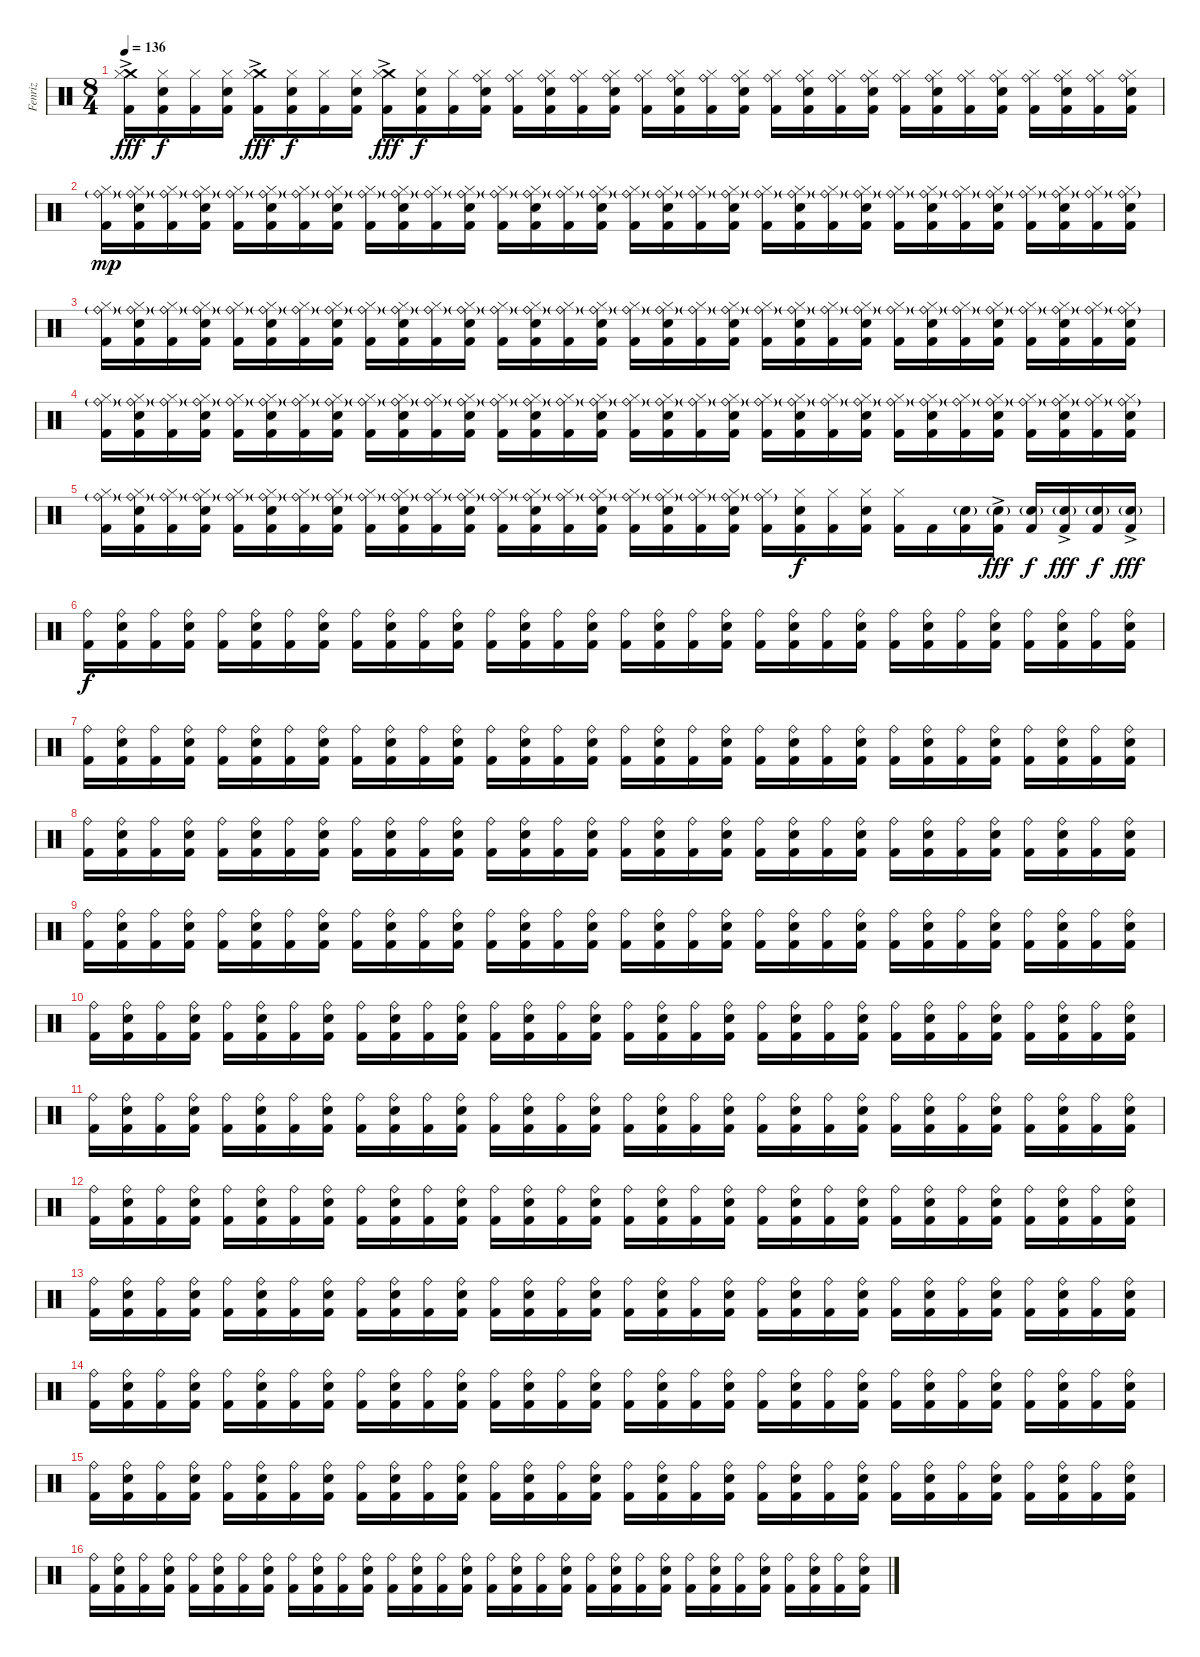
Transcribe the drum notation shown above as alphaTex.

\track ("Fenriz" "Fenriz") {instrument percussion}
\staff {score}
\articulation defaults
\ts (8 4)
\tempo 136
\clef neutral
\ks c
("Crash medium (hit)"{ac} "Hi-Hat (closed)" "Kick (hit) 2").16{dy fff} ("Snare (hit) 2" "Hi-Hat (closed)" "Kick (hit) 2").16{dy f} ("Hi-Hat (closed)" "Kick (hit) 2").16 ("Snare (hit) 2" "Hi-Hat (closed)" "Kick (hit) 2").16 ("Crash medium (hit)"{ac} "Hi-Hat (closed)" "Kick (hit) 2").16{dy fff} ("Snare (hit) 2" "Hi-Hat (closed)" "Kick (hit) 2").16{dy f} ("Hi-Hat (closed)" "Kick (hit) 2").16 ("Snare (hit) 2" "Hi-Hat (closed)" "Kick (hit) 2").16 ("Crash medium (hit)"{ac} "Hi-Hat (closed)" "Kick (hit) 2").16{dy fff} ("Snare (hit) 2" "Hi-Hat (closed)" "Kick (hit) 2").16{dy f} ("Hi-Hat (closed)" "Kick (hit) 2").16 ("Ride (bell)" "Snare (hit) 2" "Hi-Hat (closed)" "Kick (hit) 2").16 ("Ride (bell)" "Hi-Hat (closed)" "Kick (hit) 2").16 ("Ride (bell)" "Snare (hit) 2" "Hi-Hat (closed)" "Kick (hit) 2").16 ("Ride (bell)" "Hi-Hat (closed)" "Kick (hit) 2").16 ("Ride (bell)" "Snare (hit) 2" "Hi-Hat (closed)" "Kick (hit) 2").16 ("Ride (bell)" "Hi-Hat (closed)" "Kick (hit) 2").16 ("Ride (bell)" "Snare (hit) 2" "Hi-Hat (closed)" "Kick (hit) 2").16 ("Ride (bell)" "Hi-Hat (closed)" "Kick (hit) 2").16 ("Ride (bell)" "Snare (hit) 2" "Hi-Hat (closed)" "Kick (hit) 2").16 ("Ride (bell)" "Hi-Hat (closed)" "Kick (hit) 2").16 ("Ride (bell)" "Snare (hit) 2" "Hi-Hat (closed)" "Kick (hit) 2").16 ("Ride (bell)" "Hi-Hat (closed)" "Kick (hit) 2").16 ("Ride (bell)" "Snare (hit) 2" "Hi-Hat (closed)" "Kick (hit) 2").16 ("Ride (bell)" "Hi-Hat (closed)" "Kick (hit) 2").16 ("Ride (bell)" "Snare (hit) 2" "Hi-Hat (closed)" "Kick (hit) 2").16 ("Ride (bell)" "Hi-Hat (closed)" "Kick (hit) 2").16 ("Ride (bell)" "Snare (hit) 2" "Hi-Hat (closed)" "Kick (hit) 2").16 ("Ride (bell)" "Hi-Hat (closed)" "Kick (hit) 2").16 ("Ride (bell)" "Snare (hit) 2" "Hi-Hat (closed)" "Kick (hit) 2").16 ("Ride (bell)" "Hi-Hat (closed)" "Kick (hit) 2").16 ("Ride (bell)" "Snare (hit) 2" "Hi-Hat (closed)" "Kick (hit) 2").16 |
("Ride (bell)"{g} "Hi-Hat (closed)" "Kick (hit) 2").16{dy mp} ("Ride (bell)"{g} "Snare (hit) 2" "Hi-Hat (closed)" "Kick (hit) 2").16 ("Ride (bell)"{g} "Hi-Hat (closed)" "Kick (hit) 2").16 ("Ride (bell)"{g} "Snare (hit) 2" "Hi-Hat (closed)" "Kick (hit) 2").16 ("Ride (bell)"{g} "Hi-Hat (closed)" "Kick (hit) 2").16 ("Ride (bell)"{g} "Snare (hit) 2" "Hi-Hat (closed)" "Kick (hit) 2").16 ("Ride (bell)"{g} "Hi-Hat (closed)" "Kick (hit) 2").16 ("Ride (bell)"{g} "Snare (hit) 2" "Hi-Hat (closed)" "Kick (hit) 2").16 ("Ride (bell)"{g} "Hi-Hat (closed)" "Kick (hit) 2").16 ("Ride (bell)"{g} "Snare (hit) 2" "Hi-Hat (closed)" "Kick (hit) 2").16 ("Ride (bell)"{g} "Hi-Hat (closed)" "Kick (hit) 2").16 ("Ride (bell)"{g} "Snare (hit) 2" "Hi-Hat (closed)" "Kick (hit) 2").16 ("Ride (bell)"{g} "Hi-Hat (closed)" "Kick (hit) 2").16 ("Ride (bell)"{g} "Snare (hit) 2" "Hi-Hat (closed)" "Kick (hit) 2").16 ("Ride (bell)"{g} "Hi-Hat (closed)" "Kick (hit) 2").16 ("Ride (bell)"{g} "Snare (hit) 2" "Hi-Hat (closed)" "Kick (hit) 2").16 ("Ride (bell)"{g} "Hi-Hat (closed)" "Kick (hit) 2").16 ("Ride (bell)"{g} "Snare (hit) 2" "Hi-Hat (closed)" "Kick (hit) 2").16 ("Ride (bell)"{g} "Hi-Hat (closed)" "Kick (hit) 2").16 ("Ride (bell)"{g} "Snare (hit) 2" "Hi-Hat (closed)" "Kick (hit) 2").16 ("Ride (bell)"{g} "Hi-Hat (closed)" "Kick (hit) 2").16 ("Ride (bell)"{g} "Snare (hit) 2" "Hi-Hat (closed)" "Kick (hit) 2").16 ("Ride (bell)"{g} "Hi-Hat (closed)" "Kick (hit) 2").16 ("Ride (bell)"{g} "Snare (hit) 2" "Hi-Hat (closed)" "Kick (hit) 2").16 ("Ride (bell)"{g} "Hi-Hat (closed)" "Kick (hit) 2").16 ("Ride (bell)"{g} "Snare (hit) 2" "Hi-Hat (closed)" "Kick (hit) 2").16 ("Ride (bell)"{g} "Hi-Hat (closed)" "Kick (hit) 2").16 ("Ride (bell)"{g} "Snare (hit) 2" "Hi-Hat (closed)" "Kick (hit) 2").16 ("Ride (bell)"{g} "Hi-Hat (closed)" "Kick (hit) 2").16 ("Ride (bell)"{g} "Snare (hit) 2" "Hi-Hat (closed)" "Kick (hit) 2").16 ("Ride (bell)"{g} "Hi-Hat (closed)" "Kick (hit) 2").16 ("Ride (bell)"{g} "Snare (hit) 2" "Hi-Hat (closed)" "Kick (hit) 2").16 |
("Ride (bell)"{g} "Hi-Hat (closed)" "Kick (hit) 2").16 ("Ride (bell)"{g} "Snare (hit) 2" "Hi-Hat (closed)" "Kick (hit) 2").16 ("Ride (bell)"{g} "Hi-Hat (closed)" "Kick (hit) 2").16 ("Ride (bell)"{g} "Snare (hit) 2" "Hi-Hat (closed)" "Kick (hit) 2").16 ("Ride (bell)"{g} "Hi-Hat (closed)" "Kick (hit) 2").16 ("Ride (bell)"{g} "Snare (hit) 2" "Hi-Hat (closed)" "Kick (hit) 2").16 ("Ride (bell)"{g} "Hi-Hat (closed)" "Kick (hit) 2").16 ("Ride (bell)"{g} "Snare (hit) 2" "Hi-Hat (closed)" "Kick (hit) 2").16 ("Ride (bell)"{g} "Hi-Hat (closed)" "Kick (hit) 2").16 ("Ride (bell)"{g} "Snare (hit) 2" "Hi-Hat (closed)" "Kick (hit) 2").16 ("Ride (bell)"{g} "Hi-Hat (closed)" "Kick (hit) 2").16 ("Ride (bell)"{g} "Snare (hit) 2" "Hi-Hat (closed)" "Kick (hit) 2").16 ("Ride (bell)"{g} "Hi-Hat (closed)" "Kick (hit) 2").16 ("Ride (bell)"{g} "Snare (hit) 2" "Hi-Hat (closed)" "Kick (hit) 2").16 ("Ride (bell)"{g} "Hi-Hat (closed)" "Kick (hit) 2").16 ("Ride (bell)"{g} "Snare (hit) 2" "Hi-Hat (closed)" "Kick (hit) 2").16 ("Ride (bell)"{g} "Hi-Hat (closed)" "Kick (hit) 2").16 ("Ride (bell)"{g} "Snare (hit) 2" "Hi-Hat (closed)" "Kick (hit) 2").16 ("Ride (bell)"{g} "Hi-Hat (closed)" "Kick (hit) 2").16 ("Ride (bell)"{g} "Snare (hit) 2" "Hi-Hat (closed)" "Kick (hit) 2").16 ("Ride (bell)"{g} "Hi-Hat (closed)" "Kick (hit) 2").16 ("Ride (bell)"{g} "Snare (hit) 2" "Hi-Hat (closed)" "Kick (hit) 2").16 ("Ride (bell)"{g} "Hi-Hat (closed)" "Kick (hit) 2").16 ("Ride (bell)"{g} "Snare (hit) 2" "Hi-Hat (closed)" "Kick (hit) 2").16 ("Ride (bell)"{g} "Hi-Hat (closed)" "Kick (hit) 2").16 ("Ride (bell)"{g} "Snare (hit) 2" "Hi-Hat (closed)" "Kick (hit) 2").16 ("Ride (bell)"{g} "Hi-Hat (closed)" "Kick (hit) 2").16 ("Ride (bell)"{g} "Snare (hit) 2" "Hi-Hat (closed)" "Kick (hit) 2").16 ("Ride (bell)"{g} "Hi-Hat (closed)" "Kick (hit) 2").16 ("Ride (bell)"{g} "Snare (hit) 2" "Hi-Hat (closed)" "Kick (hit) 2").16 ("Ride (bell)"{g} "Hi-Hat (closed)" "Kick (hit) 2").16 ("Ride (bell)"{g} "Snare (hit) 2" "Hi-Hat (closed)" "Kick (hit) 2").16 |
("Ride (bell)"{g} "Hi-Hat (closed)" "Kick (hit) 2").16 ("Ride (bell)"{g} "Snare (hit) 2" "Hi-Hat (closed)" "Kick (hit) 2").16 ("Ride (bell)"{g} "Hi-Hat (closed)" "Kick (hit) 2").16 ("Ride (bell)"{g} "Snare (hit) 2" "Hi-Hat (closed)" "Kick (hit) 2").16 ("Ride (bell)"{g} "Hi-Hat (closed)" "Kick (hit) 2").16 ("Ride (bell)"{g} "Snare (hit) 2" "Hi-Hat (closed)" "Kick (hit) 2").16 ("Ride (bell)"{g} "Hi-Hat (closed)" "Kick (hit) 2").16 ("Ride (bell)"{g} "Snare (hit) 2" "Hi-Hat (closed)" "Kick (hit) 2").16 ("Ride (bell)"{g} "Hi-Hat (closed)" "Kick (hit) 2").16 ("Ride (bell)"{g} "Snare (hit) 2" "Hi-Hat (closed)" "Kick (hit) 2").16 ("Ride (bell)"{g} "Hi-Hat (closed)" "Kick (hit) 2").16 ("Ride (bell)"{g} "Snare (hit) 2" "Hi-Hat (closed)" "Kick (hit) 2").16 ("Ride (bell)"{g} "Hi-Hat (closed)" "Kick (hit) 2").16 ("Ride (bell)"{g} "Snare (hit) 2" "Hi-Hat (closed)" "Kick (hit) 2").16 ("Ride (bell)"{g} "Hi-Hat (closed)" "Kick (hit) 2").16 ("Ride (bell)"{g} "Snare (hit) 2" "Hi-Hat (closed)" "Kick (hit) 2").16 ("Ride (bell)"{g} "Hi-Hat (closed)" "Kick (hit) 2").16 ("Ride (bell)"{g} "Snare (hit) 2" "Hi-Hat (closed)" "Kick (hit) 2").16 ("Ride (bell)"{g} "Hi-Hat (closed)" "Kick (hit) 2").16 ("Ride (bell)"{g} "Snare (hit) 2" "Hi-Hat (closed)" "Kick (hit) 2").16 ("Ride (bell)"{g} "Hi-Hat (closed)" "Kick (hit) 2").16 ("Ride (bell)"{g} "Snare (hit) 2" "Hi-Hat (closed)" "Kick (hit) 2").16 ("Ride (bell)"{g} "Hi-Hat (closed)" "Kick (hit) 2").16 ("Ride (bell)"{g} "Snare (hit) 2" "Hi-Hat (closed)" "Kick (hit) 2").16 ("Ride (bell)"{g} "Hi-Hat (closed)" "Kick (hit) 2").16 ("Ride (bell)"{g} "Snare (hit) 2" "Hi-Hat (closed)" "Kick (hit) 2").16 ("Ride (bell)"{g} "Hi-Hat (closed)" "Kick (hit) 2").16 ("Ride (bell)"{g} "Snare (hit) 2" "Hi-Hat (closed)" "Kick (hit) 2").16 ("Ride (bell)"{g} "Hi-Hat (closed)" "Kick (hit) 2").16 ("Ride (bell)"{g} "Snare (hit) 2" "Hi-Hat (closed)" "Kick (hit) 2").16 ("Ride (bell)"{g} "Hi-Hat (closed)" "Kick (hit) 2").16 ("Ride (bell)"{g} "Snare (hit) 2" "Hi-Hat (closed)" "Kick (hit) 2").16 |
("Ride (bell)"{g} "Hi-Hat (closed)" "Kick (hit) 2").16 ("Ride (bell)"{g} "Snare (hit) 2" "Hi-Hat (closed)" "Kick (hit) 2").16 ("Ride (bell)"{g} "Hi-Hat (closed)" "Kick (hit) 2").16 ("Ride (bell)"{g} "Snare (hit) 2" "Hi-Hat (closed)" "Kick (hit) 2").16 ("Ride (bell)"{g} "Hi-Hat (closed)" "Kick (hit) 2").16 ("Ride (bell)"{g} "Snare (hit) 2" "Hi-Hat (closed)" "Kick (hit) 2").16 ("Ride (bell)"{g} "Hi-Hat (closed)" "Kick (hit) 2").16 ("Ride (bell)"{g} "Snare (hit) 2" "Hi-Hat (closed)" "Kick (hit) 2").16 ("Ride (bell)"{g} "Hi-Hat (closed)" "Kick (hit) 2").16 ("Ride (bell)"{g} "Snare (hit) 2" "Hi-Hat (closed)" "Kick (hit) 2").16 ("Ride (bell)"{g} "Hi-Hat (closed)" "Kick (hit) 2").16 ("Ride (bell)"{g} "Snare (hit) 2" "Hi-Hat (closed)" "Kick (hit) 2").16 ("Ride (bell)"{g} "Hi-Hat (closed)" "Kick (hit) 2").16 ("Ride (bell)"{g} "Snare (hit) 2" "Hi-Hat (closed)" "Kick (hit) 2").16 ("Ride (bell)"{g} "Hi-Hat (closed)" "Kick (hit) 2").16 ("Ride (bell)"{g} "Snare (hit) 2" "Hi-Hat (closed)" "Kick (hit) 2").16 ("Ride (bell)"{g} "Hi-Hat (closed)" "Kick (hit) 2").16 ("Ride (bell)"{g} "Snare (hit) 2" "Hi-Hat (closed)" "Kick (hit) 2").16 ("Ride (bell)"{g} "Hi-Hat (closed)" "Kick (hit) 2").16 ("Ride (bell)"{g} "Snare (hit) 2" "Hi-Hat (closed)" "Kick (hit) 2").16 ("Ride (bell)"{g} "Hi-Hat (closed)" "Kick (hit) 2").16 ("Snare (hit) 2" "Hi-Hat (closed)" "Kick (hit) 2").16{dy f} ("Hi-Hat (closed)" "Kick (hit) 2").16 ("Snare (hit) 2" "Hi-Hat (closed)" "Kick (hit) 2").16 ("Hi-Hat (closed)" "Kick (hit) 2").16 "Kick (hit) 2".16 ("Snare (hit) 2"{g} "Kick (hit) 2").16 ("Snare (hit) 2"{g ac} "Kick (hit) 2").16{dy fff} ("Snare (hit) 2"{g} "Kick (hit) 2").16{dy f} ("Snare (hit) 2"{g ac} "Kick (hit) 2").16{dy fff} ("Snare (hit) 2"{g} "Kick (hit) 2").16{dy f} ("Snare (hit) 2"{g ac} "Kick (hit) 2").16{dy fff} |
("Ride (bell)" "Kick (hit) 2").16{dy f} ("Ride (bell)" "Snare (hit) 2" "Kick (hit) 2").16 ("Ride (bell)" "Kick (hit) 2").16 ("Ride (bell)" "Snare (hit) 2" "Kick (hit) 2").16 ("Ride (bell)" "Kick (hit) 2").16 ("Ride (bell)" "Snare (hit) 2" "Kick (hit) 2").16 ("Ride (bell)" "Kick (hit) 2").16 ("Ride (bell)" "Snare (hit) 2" "Kick (hit) 2").16 ("Ride (bell)" "Kick (hit) 2").16 ("Ride (bell)" "Snare (hit) 2" "Kick (hit) 2").16 ("Ride (bell)" "Kick (hit) 2").16 ("Ride (bell)" "Snare (hit) 2" "Kick (hit) 2").16 ("Ride (bell)" "Kick (hit) 2").16 ("Ride (bell)" "Snare (hit) 2" "Kick (hit) 2").16 ("Ride (bell)" "Kick (hit) 2").16 ("Ride (bell)" "Snare (hit) 2" "Kick (hit) 2").16 ("Ride (bell)" "Kick (hit) 2").16 ("Ride (bell)" "Snare (hit) 2" "Kick (hit) 2").16 ("Ride (bell)" "Kick (hit) 2").16 ("Ride (bell)" "Snare (hit) 2" "Kick (hit) 2").16 ("Ride (bell)" "Kick (hit) 2").16 ("Ride (bell)" "Snare (hit) 2" "Kick (hit) 2").16 ("Ride (bell)" "Kick (hit) 2").16 ("Ride (bell)" "Snare (hit) 2" "Kick (hit) 2").16 ("Ride (bell)" "Kick (hit) 2").16 ("Ride (bell)" "Snare (hit) 2" "Kick (hit) 2").16 ("Ride (bell)" "Kick (hit) 2").16 ("Ride (bell)" "Snare (hit) 2" "Kick (hit) 2").16 ("Ride (bell)" "Kick (hit) 2").16 ("Ride (bell)" "Snare (hit) 2" "Kick (hit) 2").16 ("Ride (bell)" "Kick (hit) 2").16 ("Ride (bell)" "Snare (hit) 2" "Kick (hit) 2").16 |
("Ride (bell)" "Kick (hit) 2").16 ("Ride (bell)" "Snare (hit) 2" "Kick (hit) 2").16 ("Ride (bell)" "Kick (hit) 2").16 ("Ride (bell)" "Snare (hit) 2" "Kick (hit) 2").16 ("Ride (bell)" "Kick (hit) 2").16 ("Ride (bell)" "Snare (hit) 2" "Kick (hit) 2").16 ("Ride (bell)" "Kick (hit) 2").16 ("Ride (bell)" "Snare (hit) 2" "Kick (hit) 2").16 ("Ride (bell)" "Kick (hit) 2").16 ("Ride (bell)" "Snare (hit) 2" "Kick (hit) 2").16 ("Ride (bell)" "Kick (hit) 2").16 ("Ride (bell)" "Snare (hit) 2" "Kick (hit) 2").16 ("Ride (bell)" "Kick (hit) 2").16 ("Ride (bell)" "Snare (hit) 2" "Kick (hit) 2").16 ("Ride (bell)" "Kick (hit) 2").16 ("Ride (bell)" "Snare (hit) 2" "Kick (hit) 2").16 ("Ride (bell)" "Kick (hit) 2").16 ("Ride (bell)" "Snare (hit) 2" "Kick (hit) 2").16 ("Ride (bell)" "Kick (hit) 2").16 ("Ride (bell)" "Snare (hit) 2" "Kick (hit) 2").16 ("Ride (bell)" "Kick (hit) 2").16 ("Ride (bell)" "Snare (hit) 2" "Kick (hit) 2").16 ("Ride (bell)" "Kick (hit) 2").16 ("Ride (bell)" "Snare (hit) 2" "Kick (hit) 2").16 ("Ride (bell)" "Kick (hit) 2").16 ("Ride (bell)" "Snare (hit) 2" "Kick (hit) 2").16 ("Ride (bell)" "Kick (hit) 2").16 ("Ride (bell)" "Snare (hit) 2" "Kick (hit) 2").16 ("Ride (bell)" "Kick (hit) 2").16 ("Ride (bell)" "Snare (hit) 2" "Kick (hit) 2").16 ("Ride (bell)" "Kick (hit) 2").16 ("Ride (bell)" "Snare (hit) 2" "Kick (hit) 2").16 |
("Ride (bell)" "Kick (hit) 2").16 ("Ride (bell)" "Snare (hit) 2" "Kick (hit) 2").16 ("Ride (bell)" "Kick (hit) 2").16 ("Ride (bell)" "Snare (hit) 2" "Kick (hit) 2").16 ("Ride (bell)" "Kick (hit) 2").16 ("Ride (bell)" "Snare (hit) 2" "Kick (hit) 2").16 ("Ride (bell)" "Kick (hit) 2").16 ("Ride (bell)" "Snare (hit) 2" "Kick (hit) 2").16 ("Ride (bell)" "Kick (hit) 2").16 ("Ride (bell)" "Snare (hit) 2" "Kick (hit) 2").16 ("Ride (bell)" "Kick (hit) 2").16 ("Ride (bell)" "Snare (hit) 2" "Kick (hit) 2").16 ("Ride (bell)" "Kick (hit) 2").16 ("Ride (bell)" "Snare (hit) 2" "Kick (hit) 2").16 ("Ride (bell)" "Kick (hit) 2").16 ("Ride (bell)" "Snare (hit) 2" "Kick (hit) 2").16 ("Ride (bell)" "Kick (hit) 2").16 ("Ride (bell)" "Snare (hit) 2" "Kick (hit) 2").16 ("Ride (bell)" "Kick (hit) 2").16 ("Ride (bell)" "Snare (hit) 2" "Kick (hit) 2").16 ("Ride (bell)" "Kick (hit) 2").16 ("Ride (bell)" "Snare (hit) 2" "Kick (hit) 2").16 ("Ride (bell)" "Kick (hit) 2").16 ("Ride (bell)" "Snare (hit) 2" "Kick (hit) 2").16 ("Ride (bell)" "Kick (hit) 2").16 ("Ride (bell)" "Snare (hit) 2" "Kick (hit) 2").16 ("Ride (bell)" "Kick (hit) 2").16 ("Ride (bell)" "Snare (hit) 2" "Kick (hit) 2").16 ("Ride (bell)" "Kick (hit) 2").16 ("Ride (bell)" "Snare (hit) 2" "Kick (hit) 2").16 ("Ride (bell)" "Kick (hit) 2").16 ("Ride (bell)" "Snare (hit) 2" "Kick (hit) 2").16 |
("Ride (bell)" "Kick (hit) 2").16 ("Ride (bell)" "Snare (hit) 2" "Kick (hit) 2").16 ("Ride (bell)" "Kick (hit) 2").16 ("Ride (bell)" "Snare (hit) 2" "Kick (hit) 2").16 ("Ride (bell)" "Kick (hit) 2").16 ("Ride (bell)" "Snare (hit) 2" "Kick (hit) 2").16 ("Ride (bell)" "Kick (hit) 2").16 ("Ride (bell)" "Snare (hit) 2" "Kick (hit) 2").16 ("Ride (bell)" "Kick (hit) 2").16 ("Ride (bell)" "Snare (hit) 2" "Kick (hit) 2").16 ("Ride (bell)" "Kick (hit) 2").16 ("Ride (bell)" "Snare (hit) 2" "Kick (hit) 2").16 ("Ride (bell)" "Kick (hit) 2").16 ("Ride (bell)" "Snare (hit) 2" "Kick (hit) 2").16 ("Ride (bell)" "Kick (hit) 2").16 ("Ride (bell)" "Snare (hit) 2" "Kick (hit) 2").16 ("Ride (bell)" "Kick (hit) 2").16 ("Ride (bell)" "Snare (hit) 2" "Kick (hit) 2").16 ("Ride (bell)" "Kick (hit) 2").16 ("Ride (bell)" "Snare (hit) 2" "Kick (hit) 2").16 ("Ride (bell)" "Kick (hit) 2").16 ("Ride (bell)" "Snare (hit) 2" "Kick (hit) 2").16 ("Ride (bell)" "Kick (hit) 2").16 ("Ride (bell)" "Snare (hit) 2" "Kick (hit) 2").16 ("Ride (bell)" "Kick (hit) 2").16 ("Ride (bell)" "Snare (hit) 2" "Kick (hit) 2").16 ("Ride (bell)" "Kick (hit) 2").16 ("Ride (bell)" "Snare (hit) 2" "Kick (hit) 2").16 ("Ride (bell)" "Kick (hit) 2").16 ("Ride (bell)" "Snare (hit) 2" "Kick (hit) 2").16 ("Ride (bell)" "Kick (hit) 2").16 ("Ride (bell)" "Snare (hit) 2" "Kick (hit) 2").16 |
("Ride (bell)" "Kick (hit) 2").16 ("Ride (bell)" "Snare (hit) 2" "Kick (hit) 2").16 ("Ride (bell)" "Kick (hit) 2").16 ("Ride (bell)" "Snare (hit) 2" "Kick (hit) 2").16 ("Ride (bell)" "Kick (hit) 2").16 ("Ride (bell)" "Snare (hit) 2" "Kick (hit) 2").16 ("Ride (bell)" "Kick (hit) 2").16 ("Ride (bell)" "Snare (hit) 2" "Kick (hit) 2").16 ("Ride (bell)" "Kick (hit) 2").16 ("Ride (bell)" "Snare (hit) 2" "Kick (hit) 2").16 ("Ride (bell)" "Kick (hit) 2").16 ("Ride (bell)" "Snare (hit) 2" "Kick (hit) 2").16 ("Ride (bell)" "Kick (hit) 2").16 ("Ride (bell)" "Snare (hit) 2" "Kick (hit) 2").16 ("Ride (bell)" "Kick (hit) 2").16 ("Ride (bell)" "Snare (hit) 2" "Kick (hit) 2").16 ("Ride (bell)" "Kick (hit) 2").16 ("Ride (bell)" "Snare (hit) 2" "Kick (hit) 2").16 ("Ride (bell)" "Kick (hit) 2").16 ("Ride (bell)" "Snare (hit) 2" "Kick (hit) 2").16 ("Ride (bell)" "Kick (hit) 2").16 ("Ride (bell)" "Snare (hit) 2" "Kick (hit) 2").16 ("Ride (bell)" "Kick (hit) 2").16 ("Ride (bell)" "Snare (hit) 2" "Kick (hit) 2").16 ("Ride (bell)" "Kick (hit) 2").16 ("Ride (bell)" "Snare (hit) 2" "Kick (hit) 2").16 ("Ride (bell)" "Kick (hit) 2").16 ("Ride (bell)" "Snare (hit) 2" "Kick (hit) 2").16 ("Ride (bell)" "Kick (hit) 2").16 ("Ride (bell)" "Snare (hit) 2" "Kick (hit) 2").16 ("Ride (bell)" "Kick (hit) 2").16 ("Ride (bell)" "Snare (hit) 2" "Kick (hit) 2").16 |
("Ride (bell)" "Kick (hit) 2").16 ("Ride (bell)" "Snare (hit) 2" "Kick (hit) 2").16 ("Ride (bell)" "Kick (hit) 2").16 ("Ride (bell)" "Snare (hit) 2" "Kick (hit) 2").16 ("Ride (bell)" "Kick (hit) 2").16 ("Ride (bell)" "Snare (hit) 2" "Kick (hit) 2").16 ("Ride (bell)" "Kick (hit) 2").16 ("Ride (bell)" "Snare (hit) 2" "Kick (hit) 2").16 ("Ride (bell)" "Kick (hit) 2").16 ("Ride (bell)" "Snare (hit) 2" "Kick (hit) 2").16 ("Ride (bell)" "Kick (hit) 2").16 ("Ride (bell)" "Snare (hit) 2" "Kick (hit) 2").16 ("Ride (bell)" "Kick (hit) 2").16 ("Ride (bell)" "Snare (hit) 2" "Kick (hit) 2").16 ("Ride (bell)" "Kick (hit) 2").16 ("Ride (bell)" "Snare (hit) 2" "Kick (hit) 2").16 ("Ride (bell)" "Kick (hit) 2").16 ("Ride (bell)" "Snare (hit) 2" "Kick (hit) 2").16 ("Ride (bell)" "Kick (hit) 2").16 ("Ride (bell)" "Snare (hit) 2" "Kick (hit) 2").16 ("Ride (bell)" "Kick (hit) 2").16 ("Ride (bell)" "Snare (hit) 2" "Kick (hit) 2").16 ("Ride (bell)" "Kick (hit) 2").16 ("Ride (bell)" "Snare (hit) 2" "Kick (hit) 2").16 ("Ride (bell)" "Kick (hit) 2").16 ("Ride (bell)" "Snare (hit) 2" "Kick (hit) 2").16 ("Ride (bell)" "Kick (hit) 2").16 ("Ride (bell)" "Snare (hit) 2" "Kick (hit) 2").16 ("Ride (bell)" "Kick (hit) 2").16 ("Ride (bell)" "Snare (hit) 2" "Kick (hit) 2").16 ("Ride (bell)" "Kick (hit) 2").16 ("Ride (bell)" "Snare (hit) 2" "Kick (hit) 2").16 |
("Ride (bell)" "Kick (hit) 2").16 ("Ride (bell)" "Snare (hit) 2" "Kick (hit) 2").16 ("Ride (bell)" "Kick (hit) 2").16 ("Ride (bell)" "Snare (hit) 2" "Kick (hit) 2").16 ("Ride (bell)" "Kick (hit) 2").16 ("Ride (bell)" "Snare (hit) 2" "Kick (hit) 2").16 ("Ride (bell)" "Kick (hit) 2").16 ("Ride (bell)" "Snare (hit) 2" "Kick (hit) 2").16 ("Ride (bell)" "Kick (hit) 2").16 ("Ride (bell)" "Snare (hit) 2" "Kick (hit) 2").16 ("Ride (bell)" "Kick (hit) 2").16 ("Ride (bell)" "Snare (hit) 2" "Kick (hit) 2").16 ("Ride (bell)" "Kick (hit) 2").16 ("Ride (bell)" "Snare (hit) 2" "Kick (hit) 2").16 ("Ride (bell)" "Kick (hit) 2").16 ("Ride (bell)" "Snare (hit) 2" "Kick (hit) 2").16 ("Ride (bell)" "Kick (hit) 2").16 ("Ride (bell)" "Snare (hit) 2" "Kick (hit) 2").16 ("Ride (bell)" "Kick (hit) 2").16 ("Ride (bell)" "Snare (hit) 2" "Kick (hit) 2").16 ("Ride (bell)" "Kick (hit) 2").16 ("Ride (bell)" "Snare (hit) 2" "Kick (hit) 2").16 ("Ride (bell)" "Kick (hit) 2").16 ("Ride (bell)" "Snare (hit) 2" "Kick (hit) 2").16 ("Ride (bell)" "Kick (hit) 2").16 ("Ride (bell)" "Snare (hit) 2" "Kick (hit) 2").16 ("Ride (bell)" "Kick (hit) 2").16 ("Ride (bell)" "Snare (hit) 2" "Kick (hit) 2").16 ("Ride (bell)" "Kick (hit) 2").16 ("Ride (bell)" "Snare (hit) 2" "Kick (hit) 2").16 ("Ride (bell)" "Kick (hit) 2").16 ("Ride (bell)" "Snare (hit) 2" "Kick (hit) 2").16 |
("Ride (bell)" "Kick (hit) 2").16 ("Ride (bell)" "Snare (hit) 2" "Kick (hit) 2").16 ("Ride (bell)" "Kick (hit) 2").16 ("Ride (bell)" "Snare (hit) 2" "Kick (hit) 2").16 ("Ride (bell)" "Kick (hit) 2").16 ("Ride (bell)" "Snare (hit) 2" "Kick (hit) 2").16 ("Ride (bell)" "Kick (hit) 2").16 ("Ride (bell)" "Snare (hit) 2" "Kick (hit) 2").16 ("Ride (bell)" "Kick (hit) 2").16 ("Ride (bell)" "Snare (hit) 2" "Kick (hit) 2").16 ("Ride (bell)" "Kick (hit) 2").16 ("Ride (bell)" "Snare (hit) 2" "Kick (hit) 2").16 ("Ride (bell)" "Kick (hit) 2").16 ("Ride (bell)" "Snare (hit) 2" "Kick (hit) 2").16 ("Ride (bell)" "Kick (hit) 2").16 ("Ride (bell)" "Snare (hit) 2" "Kick (hit) 2").16 ("Ride (bell)" "Kick (hit) 2").16 ("Ride (bell)" "Snare (hit) 2" "Kick (hit) 2").16 ("Ride (bell)" "Kick (hit) 2").16 ("Ride (bell)" "Snare (hit) 2" "Kick (hit) 2").16 ("Ride (bell)" "Kick (hit) 2").16 ("Ride (bell)" "Snare (hit) 2" "Kick (hit) 2").16 ("Ride (bell)" "Kick (hit) 2").16 ("Ride (bell)" "Snare (hit) 2" "Kick (hit) 2").16 ("Ride (bell)" "Kick (hit) 2").16 ("Ride (bell)" "Snare (hit) 2" "Kick (hit) 2").16 ("Ride (bell)" "Kick (hit) 2").16 ("Ride (bell)" "Snare (hit) 2" "Kick (hit) 2").16 ("Ride (bell)" "Kick (hit) 2").16 ("Ride (bell)" "Snare (hit) 2" "Kick (hit) 2").16 ("Ride (bell)" "Kick (hit) 2").16 ("Ride (bell)" "Snare (hit) 2" "Kick (hit) 2").16 |
("Ride (bell)" "Kick (hit) 2").16 ("Ride (bell)" "Snare (hit) 2" "Kick (hit) 2").16 ("Ride (bell)" "Kick (hit) 2").16 ("Ride (bell)" "Snare (hit) 2" "Kick (hit) 2").16 ("Ride (bell)" "Kick (hit) 2").16 ("Ride (bell)" "Snare (hit) 2" "Kick (hit) 2").16 ("Ride (bell)" "Kick (hit) 2").16 ("Ride (bell)" "Snare (hit) 2" "Kick (hit) 2").16 ("Ride (bell)" "Kick (hit) 2").16 ("Ride (bell)" "Snare (hit) 2" "Kick (hit) 2").16 ("Ride (bell)" "Kick (hit) 2").16 ("Ride (bell)" "Snare (hit) 2" "Kick (hit) 2").16 ("Ride (bell)" "Kick (hit) 2").16 ("Ride (bell)" "Snare (hit) 2" "Kick (hit) 2").16 ("Ride (bell)" "Kick (hit) 2").16 ("Ride (bell)" "Snare (hit) 2" "Kick (hit) 2").16 ("Ride (bell)" "Kick (hit) 2").16 ("Ride (bell)" "Snare (hit) 2" "Kick (hit) 2").16 ("Ride (bell)" "Kick (hit) 2").16 ("Ride (bell)" "Snare (hit) 2" "Kick (hit) 2").16 ("Ride (bell)" "Kick (hit) 2").16 ("Ride (bell)" "Snare (hit) 2" "Kick (hit) 2").16 ("Ride (bell)" "Kick (hit) 2").16 ("Ride (bell)" "Snare (hit) 2" "Kick (hit) 2").16 ("Ride (bell)" "Kick (hit) 2").16 ("Ride (bell)" "Snare (hit) 2" "Kick (hit) 2").16 ("Ride (bell)" "Kick (hit) 2").16 ("Ride (bell)" "Snare (hit) 2" "Kick (hit) 2").16 ("Ride (bell)" "Kick (hit) 2").16 ("Ride (bell)" "Snare (hit) 2" "Kick (hit) 2").16 ("Ride (bell)" "Kick (hit) 2").16 ("Ride (bell)" "Snare (hit) 2" "Kick (hit) 2").16 |
("Ride (bell)" "Kick (hit) 2").16 ("Ride (bell)" "Snare (hit) 2" "Kick (hit) 2").16 ("Ride (bell)" "Kick (hit) 2").16 ("Ride (bell)" "Snare (hit) 2" "Kick (hit) 2").16 ("Ride (bell)" "Kick (hit) 2").16 ("Ride (bell)" "Snare (hit) 2" "Kick (hit) 2").16 ("Ride (bell)" "Kick (hit) 2").16 ("Ride (bell)" "Snare (hit) 2" "Kick (hit) 2").16 ("Ride (bell)" "Kick (hit) 2").16 ("Ride (bell)" "Snare (hit) 2" "Kick (hit) 2").16 ("Ride (bell)" "Kick (hit) 2").16 ("Ride (bell)" "Snare (hit) 2" "Kick (hit) 2").16 ("Ride (bell)" "Kick (hit) 2").16 ("Ride (bell)" "Snare (hit) 2" "Kick (hit) 2").16 ("Ride (bell)" "Kick (hit) 2").16 ("Ride (bell)" "Snare (hit) 2" "Kick (hit) 2").16 ("Ride (bell)" "Kick (hit) 2").16 ("Ride (bell)" "Snare (hit) 2" "Kick (hit) 2").16 ("Ride (bell)" "Kick (hit) 2").16 ("Ride (bell)" "Snare (hit) 2" "Kick (hit) 2").16 ("Ride (bell)" "Kick (hit) 2").16 ("Ride (bell)" "Snare (hit) 2" "Kick (hit) 2").16 ("Ride (bell)" "Kick (hit) 2").16 ("Ride (bell)" "Snare (hit) 2" "Kick (hit) 2").16 ("Ride (bell)" "Kick (hit) 2").16 ("Ride (bell)" "Snare (hit) 2" "Kick (hit) 2").16 ("Ride (bell)" "Kick (hit) 2").16 ("Ride (bell)" "Snare (hit) 2" "Kick (hit) 2").16 ("Ride (bell)" "Kick (hit) 2").16 ("Ride (bell)" "Snare (hit) 2" "Kick (hit) 2").16 ("Ride (bell)" "Kick (hit) 2").16 ("Ride (bell)" "Snare (hit) 2" "Kick (hit) 2").16 |
("Ride (bell)" "Kick (hit) 2").16 ("Ride (bell)" "Snare (hit) 2" "Kick (hit) 2").16 ("Ride (bell)" "Kick (hit) 2").16 ("Ride (bell)" "Snare (hit) 2" "Kick (hit) 2").16 ("Ride (bell)" "Kick (hit) 2").16 ("Ride (bell)" "Snare (hit) 2" "Kick (hit) 2").16 ("Ride (bell)" "Kick (hit) 2").16 ("Ride (bell)" "Snare (hit) 2" "Kick (hit) 2").16 ("Ride (bell)" "Kick (hit) 2").16 ("Ride (bell)" "Snare (hit) 2" "Kick (hit) 2").16 ("Ride (bell)" "Kick (hit) 2").16 ("Ride (bell)" "Snare (hit) 2" "Kick (hit) 2").16 ("Ride (bell)" "Kick (hit) 2").16 ("Ride (bell)" "Snare (hit) 2" "Kick (hit) 2").16 ("Ride (bell)" "Kick (hit) 2").16 ("Ride (bell)" "Snare (hit) 2" "Kick (hit) 2").16 ("Ride (bell)" "Kick (hit) 2").16 ("Ride (bell)" "Snare (hit) 2" "Kick (hit) 2").16 ("Ride (bell)" "Kick (hit) 2").16 ("Ride (bell)" "Snare (hit) 2" "Kick (hit) 2").16 ("Ride (bell)" "Kick (hit) 2").16 ("Ride (bell)" "Snare (hit) 2" "Kick (hit) 2").16 ("Ride (bell)" "Kick (hit) 2").16 ("Ride (bell)" "Snare (hit) 2" "Kick (hit) 2").16 ("Ride (bell)" "Kick (hit) 2").16 ("Ride (bell)" "Snare (hit) 2" "Kick (hit) 2").16 ("Ride (bell)" "Kick (hit) 2").16 ("Ride (bell)" "Snare (hit) 2" "Kick (hit) 2").16 ("Ride (bell)" "Kick (hit) 2").16 ("Ride (bell)" "Snare (hit) 2" "Kick (hit) 2").16 ("Ride (bell)" "Kick (hit) 2").16 ("Ride (bell)" "Snare (hit) 2" "Kick (hit) 2").16
